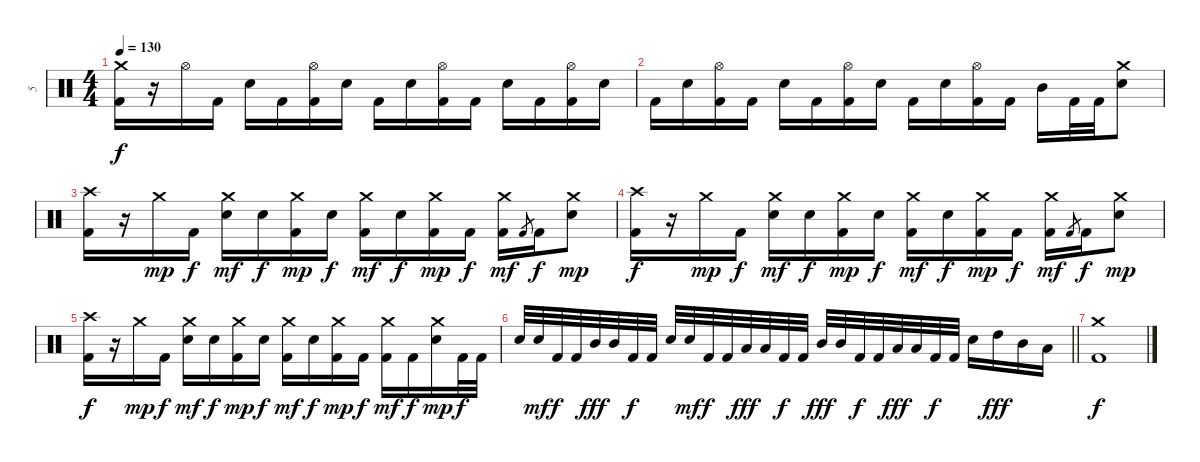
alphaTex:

\track ("5" "5") {instrument percussion}
\staff {score}
\articulation defaults
\ts (4 4)
\tempo 130
\clef neutral
\ks c
("Crash medium (hit)" "Kick (hit) 2").16{dy f} r.16 "Hi-Hat (open)".16 "Kick (hit) 2".16 "Electric Snare (hit)".16 "Kick (hit) 2".16 ("Hi-Hat (open)" "Kick (hit) 2").16 "Electric Snare (hit)".16 "Kick (hit) 2".16 "Electric Snare (hit)".16 ("Hi-Hat (open)" "Kick (hit) 2").16 "Kick (hit) 2".16 "Electric Snare (hit)".16 "Kick (hit) 2".16 ("Hi-Hat (open)" "Kick (hit) 2").16 "Electric Snare (hit)".16 |
"Kick (hit) 2".16 "Electric Snare (hit)".16 ("Hi-Hat (open)" "Kick (hit) 2").16 "Kick (hit) 2".16 "Electric Snare (hit)".16 "Kick (hit) 2".16 ("Hi-Hat (open)" "Kick (hit) 2").16 "Electric Snare (hit)".16 "Kick (hit) 2".16 "Electric Snare (hit)".16 ("Hi-Hat (open)" "Kick (hit) 2").16 "Kick (hit) 2".16 "Mid Tom (hit)".16 "Kick (hit) 2".32 "Kick (hit) 2".32 ("Crash medium (hit)" "Electric Snare (hit)").8 |
("Crash high (hit)" "Kick (hit) 2").16 r.16 "Crash medium (hit)".16{dy mp} "Kick (hit) 2".16{dy f} ("Crash medium (hit)" "Electric Snare (hit)").16{dy mf} "Electric Snare (hit)".16{dy f} ("Crash medium (hit)" "Kick (hit) 2").16{dy mp} "Electric Snare (hit)".16{dy f} ("Crash medium (hit)" "Kick (hit) 2").16{dy mf} "Electric Snare (hit)".16{dy f} ("Crash medium (hit)" "Kick (hit) 2").16{dy mp} "Kick (hit) 2".16{dy f} ("Crash medium (hit)" "Kick (hit) 2").16{dy mf} "Kick (hit) 2".8{gr} "Kick (hit) 2".16{dy f} ("Crash medium (hit)" "Electric Snare (hit)").8{dy mp} |
("Crash high (hit)" "Kick (hit) 2").16{dy f} r.16 "Crash medium (hit)".16{dy mp} "Kick (hit) 2".16{dy f} ("Crash medium (hit)" "Electric Snare (hit)").16{dy mf} "Electric Snare (hit)".16{dy f} ("Crash medium (hit)" "Kick (hit) 2").16{dy mp} "Electric Snare (hit)".16{dy f} ("Crash medium (hit)" "Kick (hit) 2").16{dy mf} "Electric Snare (hit)".16{dy f} ("Crash medium (hit)" "Kick (hit) 2").16{dy mp} "Kick (hit) 2".16{dy f} ("Crash medium (hit)" "Kick (hit) 2").16{dy mf} "Kick (hit) 2".8{gr} "Kick (hit) 2".16{dy f} ("Crash medium (hit)" "Electric Snare (hit)").8{dy mp} |
("Crash high (hit)" "Kick (hit) 2").16{dy f} r.16 "Crash medium (hit)".16{dy mp} "Kick (hit) 2".16{dy f} ("Crash medium (hit)" "Electric Snare (hit)").16{dy mf} "Electric Snare (hit)".16{dy f} ("Crash medium (hit)" "Kick (hit) 2").16{dy mp} "Electric Snare (hit)".16{dy f} ("Crash medium (hit)" "Kick (hit) 2").16{dy mf} "Electric Snare (hit)".16{dy f} ("Crash medium (hit)" "Kick (hit) 2").16{dy mp} "Kick (hit) 2".16{dy f} ("Crash medium (hit)" "Kick (hit) 2").16{dy mf} "Kick (hit) 2".16{dy f} ("Crash medium (hit)" "Electric Snare (hit)").16{dy mp} "Kick (hit) 2".32{dy f} "Kick (hit) 2".32 |
\barLineRight lightlight "Electric Snare (hit)".32 "Electric Snare (hit)".32{dy mf} "Kick (hit) 2".32{dy f} "Kick (hit) 2".32 "Mid Tom (hit)".32{dy fff} "Mid Tom (hit)".32 "Kick (hit) 2".32{dy f} "Kick (hit) 2".32 "Electric Snare (hit)".32 "Electric Snare (hit)".32{dy mf} "Kick (hit) 2".32{dy f} "Kick (hit) 2".32 "Low Tom (hit)".32{dy fff} "Low Tom (hit)".32 "Kick (hit) 2".32{dy f} "Kick (hit) 2".32 "Mid Tom (hit)".32{dy fff} "Mid Tom (hit)".32 "Kick (hit) 2".32{dy f} "Kick (hit) 2".32 "Low Tom (hit)".32{dy fff} "Low Tom (hit)".32 "Kick (hit) 2".32{dy f} "Kick (hit) 2".32 "Electric Snare (hit)".16 "High Tom (hit)".16{dy fff} "Mid Tom (hit)".16 "Low Tom (hit)".16
|
("Crash medium (hit)" "Kick (hit) 2").1{dy f}
